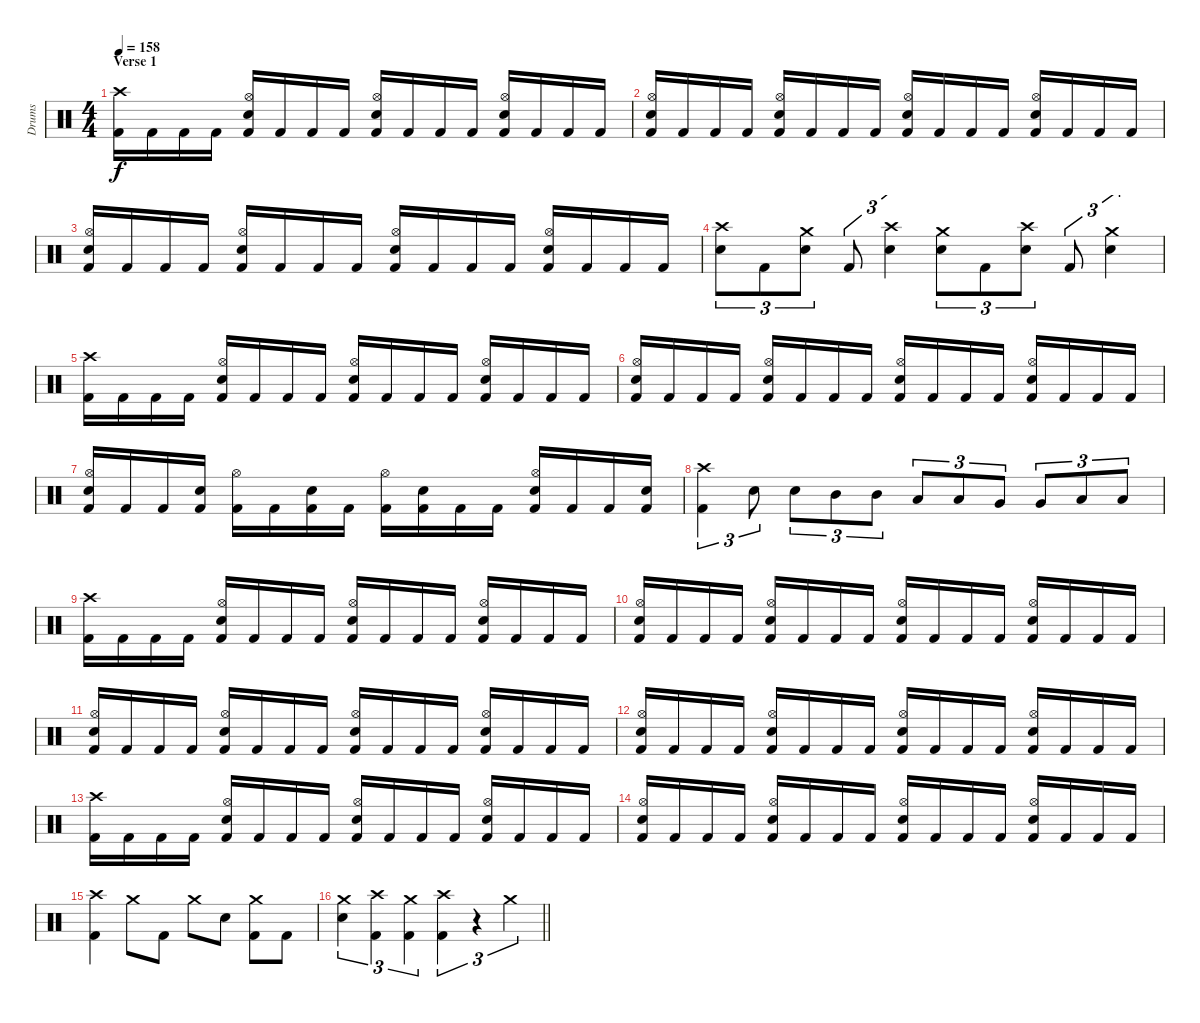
\track ("Drums" "Drums") {instrument percussion}
\staff {score}
\articulation defaults
\ts (4 4)
\section ("" "Verse 1")
\tempo 158
\clef neutral
\ks c
("Crash high (hit)" "Kick (hit) 2").16{dy f} "Kick (hit) 2".16 "Kick (hit) 2".16 "Kick (hit) 2".16 ("Hi-Hat (open)" "Snare (hit) 2" "Kick (hit) 2").16 "Kick (hit) 2".16 "Kick (hit) 2".16 "Kick (hit) 2".16 ("Hi-Hat (open)" "Snare (hit) 2" "Kick (hit) 2").16 "Kick (hit) 2".16 "Kick (hit) 2".16 "Kick (hit) 2".16 ("Hi-Hat (open)" "Snare (hit) 2" "Kick (hit) 2").16 "Kick (hit) 2".16 "Kick (hit) 2".16 "Kick (hit) 2".16 |
("Hi-Hat (open)" "Snare (hit) 2" "Kick (hit) 2").16 "Kick (hit) 2".16 "Kick (hit) 2".16 "Kick (hit) 2".16 ("Hi-Hat (open)" "Snare (hit) 2" "Kick (hit) 2").16 "Kick (hit) 2".16 "Kick (hit) 2".16 "Kick (hit) 2".16 ("Hi-Hat (open)" "Snare (hit) 2" "Kick (hit) 2").16 "Kick (hit) 2".16 "Kick (hit) 2".16 "Kick (hit) 2".16 ("Hi-Hat (open)" "Snare (hit) 2" "Kick (hit) 2").16 "Kick (hit) 2".16 "Kick (hit) 2".16 "Kick (hit) 2".16 |
("Hi-Hat (open)" "Snare (hit) 2" "Kick (hit) 2").16 "Kick (hit) 2".16 "Kick (hit) 2".16 "Kick (hit) 2".16 ("Hi-Hat (open)" "Snare (hit) 2" "Kick (hit) 2").16 "Kick (hit) 2".16 "Kick (hit) 2".16 "Kick (hit) 2".16 ("Hi-Hat (open)" "Snare (hit) 2" "Kick (hit) 2").16 "Kick (hit) 2".16 "Kick (hit) 2".16 "Kick (hit) 2".16 ("Hi-Hat (open)" "Snare (hit) 2" "Kick (hit) 2").16 "Kick (hit) 2".16 "Kick (hit) 2".16 "Kick (hit) 2".16 |
("Crash high (hit)" "Snare (hit) 2").8{tu (3 2)} "Kick (hit) 2".8{tu (3 2)} ("Crash medium (hit)" "Snare (hit) 2").8{tu (3 2)} "Kick (hit) 2".8{tu (3 2)} ("Crash high (hit)" "Snare (hit) 2").4{tu (3 2)} ("Crash medium (hit)" "Snare (hit) 2").8{tu (3 2)} "Kick (hit) 2".8{tu (3 2)} ("Crash high (hit)" "Snare (hit) 2").8{tu (3 2)} "Kick (hit) 2".8{tu (3 2)} ("Crash medium (hit)" "Snare (hit) 2").4{tu (3 2)} |
("Crash high (hit)" "Kick (hit) 2").16 "Kick (hit) 2".16 "Kick (hit) 2".16 "Kick (hit) 2".16 ("Hi-Hat (open)" "Snare (hit) 2" "Kick (hit) 2").16 "Kick (hit) 2".16 "Kick (hit) 2".16 "Kick (hit) 2".16 ("Hi-Hat (open)" "Snare (hit) 2" "Kick (hit) 2").16 "Kick (hit) 2".16 "Kick (hit) 2".16 "Kick (hit) 2".16 ("Hi-Hat (open)" "Snare (hit) 2" "Kick (hit) 2").16 "Kick (hit) 2".16 "Kick (hit) 2".16 "Kick (hit) 2".16 |
("Hi-Hat (open)" "Snare (hit) 2" "Kick (hit) 2").16 "Kick (hit) 2".16 "Kick (hit) 2".16 "Kick (hit) 2".16 ("Hi-Hat (open)" "Snare (hit) 2" "Kick (hit) 2").16 "Kick (hit) 2".16 "Kick (hit) 2".16 "Kick (hit) 2".16 ("Hi-Hat (open)" "Snare (hit) 2" "Kick (hit) 2").16 "Kick (hit) 2".16 "Kick (hit) 2".16 "Kick (hit) 2".16 ("Hi-Hat (open)" "Snare (hit) 2" "Kick (hit) 2").16 "Kick (hit) 2".16 "Kick (hit) 2".16 "Kick (hit) 2".16 |
("Hi-Hat (open)" "Snare (hit) 2" "Kick (hit) 2").16 "Kick (hit) 2".16 "Kick (hit) 2".16 ("Snare (hit) 2" "Kick (hit) 2").16 ("Hi-Hat (open)" "Kick (hit) 2").16 "Kick (hit) 2".16 ("Snare (hit) 2" "Kick (hit) 2").16 "Kick (hit) 2".16 ("Hi-Hat (open)" "Kick (hit) 2").16 ("Snare (hit) 2" "Kick (hit) 2").16 "Kick (hit) 2".16 "Kick (hit) 2".16 ("Hi-Hat (open)" "Snare (hit) 2" "Kick (hit) 2").16 "Kick (hit) 2".16 "Kick (hit) 2".16 ("Snare (hit) 2" "Kick (hit) 2").16 |
("Crash high (hit)" "Kick (hit) 2").4{tu (3 2)} "Snare (hit) 2".8{tu (3 2)} "Snare (hit) 2".8{tu (3 2)} "Mid Tom (hit)".8{tu (3 2)} "Mid Tom (hit)".8{tu (3 2)} "Low Tom (hit)".8{tu (3 2)} "Low Tom (hit)".8{tu (3 2)} "Very Low Tom (hit)".8{tu (3 2)} "Very Low Tom (hit)".8{tu (3 2)} "Low Floor Tom (hit)".8{tu (3 2)} "Low Floor Tom (hit)".8{tu (3 2)} |
("Crash high (hit)" "Kick (hit) 2").16 "Kick (hit) 2".16 "Kick (hit) 2".16 "Kick (hit) 2".16 ("Hi-Hat (open)" "Snare (hit) 2" "Kick (hit) 2").16 "Kick (hit) 2".16 "Kick (hit) 2".16 "Kick (hit) 2".16 ("Hi-Hat (open)" "Snare (hit) 2" "Kick (hit) 2").16 "Kick (hit) 2".16 "Kick (hit) 2".16 "Kick (hit) 2".16 ("Hi-Hat (open)" "Snare (hit) 2" "Kick (hit) 2").16 "Kick (hit) 2".16 "Kick (hit) 2".16 "Kick (hit) 2".16 |
("Hi-Hat (open)" "Snare (hit) 2" "Kick (hit) 2").16 "Kick (hit) 2".16 "Kick (hit) 2".16 "Kick (hit) 2".16 ("Hi-Hat (open)" "Snare (hit) 2" "Kick (hit) 2").16 "Kick (hit) 2".16 "Kick (hit) 2".16 "Kick (hit) 2".16 ("Hi-Hat (open)" "Snare (hit) 2" "Kick (hit) 2").16 "Kick (hit) 2".16 "Kick (hit) 2".16 "Kick (hit) 2".16 ("Hi-Hat (open)" "Snare (hit) 2" "Kick (hit) 2").16 "Kick (hit) 2".16 "Kick (hit) 2".16 "Kick (hit) 2".16 |
("Hi-Hat (open)" "Snare (hit) 2" "Kick (hit) 2").16 "Kick (hit) 2".16 "Kick (hit) 2".16 "Kick (hit) 2".16 ("Hi-Hat (open)" "Snare (hit) 2" "Kick (hit) 2").16 "Kick (hit) 2".16 "Kick (hit) 2".16 "Kick (hit) 2".16 ("Hi-Hat (open)" "Snare (hit) 2" "Kick (hit) 2").16 "Kick (hit) 2".16 "Kick (hit) 2".16 "Kick (hit) 2".16 ("Hi-Hat (open)" "Snare (hit) 2" "Kick (hit) 2").16 "Kick (hit) 2".16 "Kick (hit) 2".16 "Kick (hit) 2".16 |
("Hi-Hat (open)" "Snare (hit) 2" "Kick (hit) 2").16 "Kick (hit) 2".16 "Kick (hit) 2".16 "Kick (hit) 2".16 ("Hi-Hat (open)" "Snare (hit) 2" "Kick (hit) 2").16 "Kick (hit) 2".16 "Kick (hit) 2".16 "Kick (hit) 2".16 ("Hi-Hat (open)" "Snare (hit) 2" "Kick (hit) 2").16 "Kick (hit) 2".16 "Kick (hit) 2".16 "Kick (hit) 2".16 ("Hi-Hat (open)" "Snare (hit) 2" "Kick (hit) 2").16 "Kick (hit) 2".16 "Kick (hit) 2".16 "Kick (hit) 2".16 |
("Crash high (hit)" "Kick (hit) 2").16 "Kick (hit) 2".16 "Kick (hit) 2".16 "Kick (hit) 2".16 ("Hi-Hat (open)" "Snare (hit) 2" "Kick (hit) 2").16 "Kick (hit) 2".16 "Kick (hit) 2".16 "Kick (hit) 2".16 ("Hi-Hat (open)" "Snare (hit) 2" "Kick (hit) 2").16 "Kick (hit) 2".16 "Kick (hit) 2".16 "Kick (hit) 2".16 ("Hi-Hat (open)" "Snare (hit) 2" "Kick (hit) 2").16 "Kick (hit) 2".16 "Kick (hit) 2".16 "Kick (hit) 2".16 |
("Hi-Hat (open)" "Snare (hit) 2" "Kick (hit) 2").16 "Kick (hit) 2".16 "Kick (hit) 2".16 "Kick (hit) 2".16 ("Hi-Hat (open)" "Snare (hit) 2" "Kick (hit) 2").16 "Kick (hit) 2".16 "Kick (hit) 2".16 "Kick (hit) 2".16 ("Hi-Hat (open)" "Snare (hit) 2" "Kick (hit) 2").16 "Kick (hit) 2".16 "Kick (hit) 2".16 "Kick (hit) 2".16 ("Hi-Hat (open)" "Snare (hit) 2" "Kick (hit) 2").16 "Kick (hit) 2".16 "Kick (hit) 2".16 "Kick (hit) 2".16 |
("Crash high (hit)" "Kick (hit) 2").4 "Crash medium (hit)".8 "Kick (hit) 2".8 "Crash medium (hit)".8 "Snare (hit) 2".8 ("Crash medium (hit)" "Kick (hit) 2").8 "Kick (hit) 2".8 |
\barLineRight lightlight
("Crash medium (hit)" "Snare (hit) 2").4{tu (3 2)} ("Crash high (hit)" "Kick (hit) 2").4{tu (3 2)} ("Crash medium (hit)" "Kick (hit) 2").4{tu (3 2)} ("Crash high (hit)" "Kick (hit) 2").4{tu (3 2)} r.4{tu (3 2)} "Crash medium (hit)".4{tu (3 2)}
